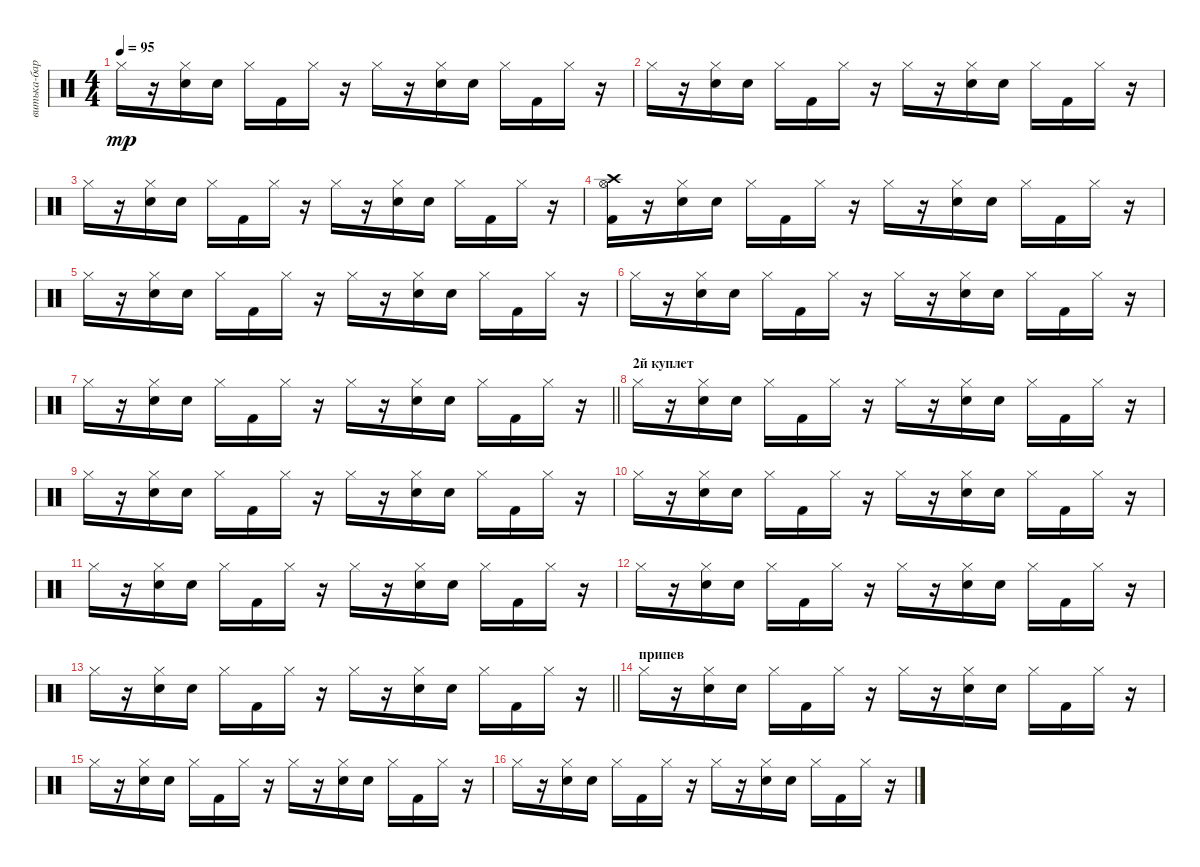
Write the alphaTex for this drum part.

\track ("витька-барабанит" "витька-бар") {instrument percussion}
\staff {score}
\articulation defaults
\ts (4 4)
\tempo 95
\clef neutral
\ks c "Hi-Hat (closed)".16{dy mp}
r.16 ("Snare (hit) 2" "Hi-Hat (closed)").16 "Snare (hit) 2".16 "Hi-Hat (closed)".16 "Kick (hit) 2".16 "Hi-Hat (closed)".16 r.16 "Hi-Hat (closed)".16 r.16 ("Snare (hit) 2" "Hi-Hat (closed)").16 "Snare (hit) 2".16 "Hi-Hat (closed)".16 "Kick (hit) 2".16 "Hi-Hat (closed)".16 r.16 |
"Hi-Hat (closed)".16 r.16 ("Snare (hit) 2" "Hi-Hat (closed)").16 "Snare (hit) 2".16 "Hi-Hat (closed)".16 "Kick (hit) 2".16 "Hi-Hat (closed)".16 r.16 "Hi-Hat (closed)".16 r.16 ("Snare (hit) 2" "Hi-Hat (closed)").16 "Snare (hit) 2".16 "Hi-Hat (closed)".16 "Kick (hit) 2".16 "Hi-Hat (closed)".16 r.16 |
"Hi-Hat (closed)".16 r.16 ("Snare (hit) 2" "Hi-Hat (closed)").16 "Snare (hit) 2".16 "Hi-Hat (closed)".16 "Kick (hit) 2".16 "Hi-Hat (closed)".16 r.16 "Hi-Hat (closed)".16 r.16 ("Snare (hit) 2" "Hi-Hat (closed)").16 "Snare (hit) 2".16 "Hi-Hat (closed)".16 "Kick (hit) 2".16 "Hi-Hat (closed)".16 r.16 |
("Kick (hit) 2" "Crash high (hit)" "Hi-Hat (open)").16 r.16 ("Snare (hit) 2" "Hi-Hat (closed)").16 "Snare (hit) 2".16 "Hi-Hat (closed)".16 "Kick (hit) 2".16 "Hi-Hat (closed)".16 r.16 "Hi-Hat (closed)".16 r.16 ("Snare (hit) 2" "Hi-Hat (closed)").16 "Snare (hit) 2".16 "Hi-Hat (closed)".16 "Kick (hit) 2".16 "Hi-Hat (closed)".16 r.16 |
"Hi-Hat (closed)".16 r.16 ("Snare (hit) 2" "Hi-Hat (closed)").16 "Snare (hit) 2".16 "Hi-Hat (closed)".16 "Kick (hit) 2".16 "Hi-Hat (closed)".16 r.16 "Hi-Hat (closed)".16 r.16 ("Snare (hit) 2" "Hi-Hat (closed)").16 "Snare (hit) 2".16 "Hi-Hat (closed)".16 "Kick (hit) 2".16 "Hi-Hat (closed)".16 r.16 |
"Hi-Hat (closed)".16 r.16 ("Snare (hit) 2" "Hi-Hat (closed)").16 "Snare (hit) 2".16 "Hi-Hat (closed)".16 "Kick (hit) 2".16 "Hi-Hat (closed)".16 r.16 "Hi-Hat (closed)".16 r.16 ("Snare (hit) 2" "Hi-Hat (closed)").16 "Snare (hit) 2".16 "Hi-Hat (closed)".16 "Kick (hit) 2".16 "Hi-Hat (closed)".16 r.16 |
\barLineRight lightlight "Hi-Hat (closed)".16
r.16 ("Snare (hit) 2" "Hi-Hat (closed)").16 "Snare (hit) 2".16 "Hi-Hat (closed)".16 "Kick (hit) 2".16 "Hi-Hat (closed)".16 r.16 "Hi-Hat (closed)".16 r.16 ("Snare (hit) 2" "Hi-Hat (closed)").16 "Snare (hit) 2".16 "Hi-Hat (closed)".16 "Kick (hit) 2".16 "Hi-Hat (closed)".16 r.16 |
\section ("" "2й куплет")
"Hi-Hat (closed)".16 r.16 ("Snare (hit) 2" "Hi-Hat (closed)").16 "Snare (hit) 2".16 "Hi-Hat (closed)".16 "Kick (hit) 2".16 "Hi-Hat (closed)".16 r.16 "Hi-Hat (closed)".16 r.16 ("Snare (hit) 2" "Hi-Hat (closed)").16 "Snare (hit) 2".16 "Hi-Hat (closed)".16 "Kick (hit) 2".16 "Hi-Hat (closed)".16 r.16 |
"Hi-Hat (closed)".16 r.16 ("Snare (hit) 2" "Hi-Hat (closed)").16 "Snare (hit) 2".16 "Hi-Hat (closed)".16 "Kick (hit) 2".16 "Hi-Hat (closed)".16 r.16 "Hi-Hat (closed)".16 r.16 ("Snare (hit) 2" "Hi-Hat (closed)").16 "Snare (hit) 2".16 "Hi-Hat (closed)".16 "Kick (hit) 2".16 "Hi-Hat (closed)".16 r.16 |
"Hi-Hat (closed)".16 r.16 ("Snare (hit) 2" "Hi-Hat (closed)").16 "Snare (hit) 2".16 "Hi-Hat (closed)".16 "Kick (hit) 2".16 "Hi-Hat (closed)".16 r.16 "Hi-Hat (closed)".16 r.16 ("Snare (hit) 2" "Hi-Hat (closed)").16 "Snare (hit) 2".16 "Hi-Hat (closed)".16 "Kick (hit) 2".16 "Hi-Hat (closed)".16 r.16 |
"Hi-Hat (closed)".16 r.16 ("Snare (hit) 2" "Hi-Hat (closed)").16 "Snare (hit) 2".16 "Hi-Hat (closed)".16 "Kick (hit) 2".16 "Hi-Hat (closed)".16 r.16 "Hi-Hat (closed)".16 r.16 ("Snare (hit) 2" "Hi-Hat (closed)").16 "Snare (hit) 2".16 "Hi-Hat (closed)".16 "Kick (hit) 2".16 "Hi-Hat (closed)".16 r.16 |
"Hi-Hat (closed)".16 r.16 ("Snare (hit) 2" "Hi-Hat (closed)").16 "Snare (hit) 2".16 "Hi-Hat (closed)".16 "Kick (hit) 2".16 "Hi-Hat (closed)".16 r.16 "Hi-Hat (closed)".16 r.16 ("Snare (hit) 2" "Hi-Hat (closed)").16 "Snare (hit) 2".16 "Hi-Hat (closed)".16 "Kick (hit) 2".16 "Hi-Hat (closed)".16 r.16 |
\barLineRight lightlight "Hi-Hat (closed)".16
r.16 ("Snare (hit) 2" "Hi-Hat (closed)").16 "Snare (hit) 2".16 "Hi-Hat (closed)".16 "Kick (hit) 2".16 "Hi-Hat (closed)".16 r.16 "Hi-Hat (closed)".16 r.16 ("Snare (hit) 2" "Hi-Hat (closed)").16 "Snare (hit) 2".16 "Hi-Hat (closed)".16 "Kick (hit) 2".16 "Hi-Hat (closed)".16 r.16 |
\section ("" "припев")
"Hi-Hat (closed)".16 r.16 ("Snare (hit) 2" "Hi-Hat (closed)").16 "Snare (hit) 2".16 "Hi-Hat (closed)".16 "Kick (hit) 2".16 "Hi-Hat (closed)".16 r.16 "Hi-Hat (closed)".16 r.16 ("Snare (hit) 2" "Hi-Hat (closed)").16 "Snare (hit) 2".16 "Hi-Hat (closed)".16 "Kick (hit) 2".16 "Hi-Hat (closed)".16 r.16 |
"Hi-Hat (closed)".16 r.16 ("Snare (hit) 2" "Hi-Hat (closed)").16 "Snare (hit) 2".16 "Hi-Hat (closed)".16 "Kick (hit) 2".16 "Hi-Hat (closed)".16 r.16 "Hi-Hat (closed)".16 r.16 ("Snare (hit) 2" "Hi-Hat (closed)").16 "Snare (hit) 2".16 "Hi-Hat (closed)".16 "Kick (hit) 2".16 "Hi-Hat (closed)".16 r.16 |
"Hi-Hat (closed)".16 r.16 ("Snare (hit) 2" "Hi-Hat (closed)").16 "Snare (hit) 2".16 "Hi-Hat (closed)".16 "Kick (hit) 2".16 "Hi-Hat (closed)".16 r.16 "Hi-Hat (closed)".16 r.16 ("Snare (hit) 2" "Hi-Hat (closed)").16 "Snare (hit) 2".16 "Hi-Hat (closed)".16 "Kick (hit) 2".16 "Hi-Hat (closed)".16 r.16
